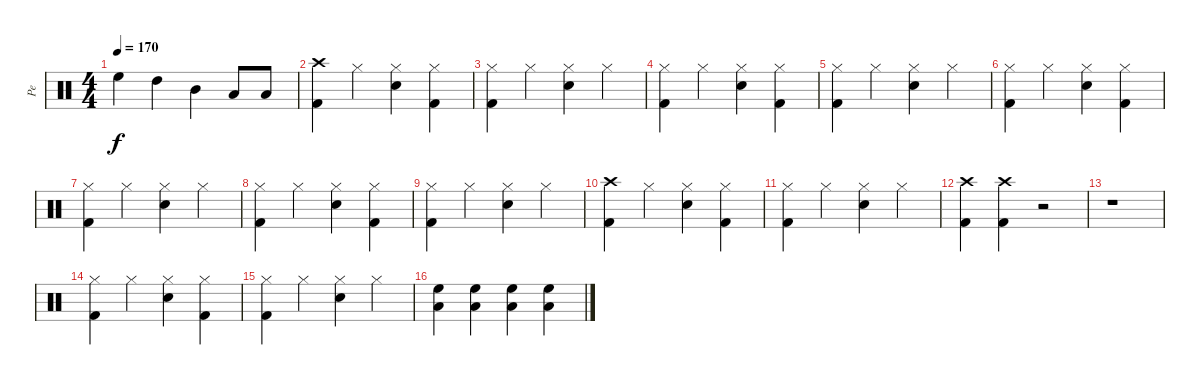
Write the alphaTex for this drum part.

\track ("Pe" "Pe") {instrument percussion}
\staff {score}
\articulation defaults
\ts (4 4)
\tempo 170
\clef neutral
\ks c "High Floor Tom (hit)".4{dy f} "High Tom (hit)".4 "Mid Tom (hit)".4 "Low Tom (hit)".8 "Low Tom (hit)".8
|
("Kick (hit) 2" "Crash high (hit)").4 "Hi-Hat (closed)".4 ("Snare (hit) 2" "Hi-Hat (closed)").4 ("Kick (hit) 2" "Hi-Hat (closed)").4 |
("Kick (hit) 2" "Hi-Hat (closed)").4 "Hi-Hat (closed)".4 ("Snare (hit) 2" "Hi-Hat (closed)").4 "Hi-Hat (closed)".4 |
("Kick (hit) 2" "Hi-Hat (closed)").4 "Hi-Hat (closed)".4 ("Snare (hit) 2" "Hi-Hat (closed)").4 ("Kick (hit) 2" "Hi-Hat (closed)").4 |
("Kick (hit) 2" "Hi-Hat (closed)").4 "Hi-Hat (closed)".4 ("Snare (hit) 2" "Hi-Hat (closed)").4 "Hi-Hat (closed)".4 |
("Kick (hit) 2" "Hi-Hat (closed)").4 "Hi-Hat (closed)".4 ("Snare (hit) 2" "Hi-Hat (closed)").4 ("Kick (hit) 2" "Hi-Hat (closed)").4 |
("Kick (hit) 2" "Hi-Hat (closed)").4 "Hi-Hat (closed)".4 ("Snare (hit) 2" "Hi-Hat (closed)").4 "Hi-Hat (closed)".4 |
("Kick (hit) 2" "Hi-Hat (closed)").4 "Hi-Hat (closed)".4 ("Snare (hit) 2" "Hi-Hat (closed)").4 ("Kick (hit) 2" "Hi-Hat (closed)").4 |
("Kick (hit) 2" "Hi-Hat (closed)").4 "Hi-Hat (closed)".4 ("Snare (hit) 2" "Hi-Hat (closed)").4 "Hi-Hat (closed)".4 |
("Kick (hit) 2" "Crash high (hit)").4 "Hi-Hat (closed)".4 ("Snare (hit) 2" "Hi-Hat (closed)").4 ("Kick (hit) 2" "Hi-Hat (closed)").4 |
("Kick (hit) 2" "Hi-Hat (closed)").4 "Hi-Hat (closed)".4 ("Snare (hit) 2" "Hi-Hat (closed)").4 "Hi-Hat (closed)".4 |
("Kick (hit) 2" "Crash high (hit)").4 ("Kick (hit) 2" "Crash high (hit)").4 r.2 |
r.1 |
("Kick (hit) 2" "Hi-Hat (closed)").4 "Hi-Hat (closed)".4 ("Snare (hit) 2" "Hi-Hat (closed)").4 ("Kick (hit) 2" "Hi-Hat (closed)").4 |
("Kick (hit) 2" "Hi-Hat (closed)").4 "Hi-Hat (closed)".4 ("Snare (hit) 2" "Hi-Hat (closed)").4 "Hi-Hat (closed)".4 |
("High Floor Tom (hit)" "Low Tom (hit)").4 ("High Floor Tom (hit)" "Low Tom (hit)").4 ("High Floor Tom (hit)" "Low Tom (hit)").4 ("High Floor Tom (hit)" "Low Tom (hit)").4
